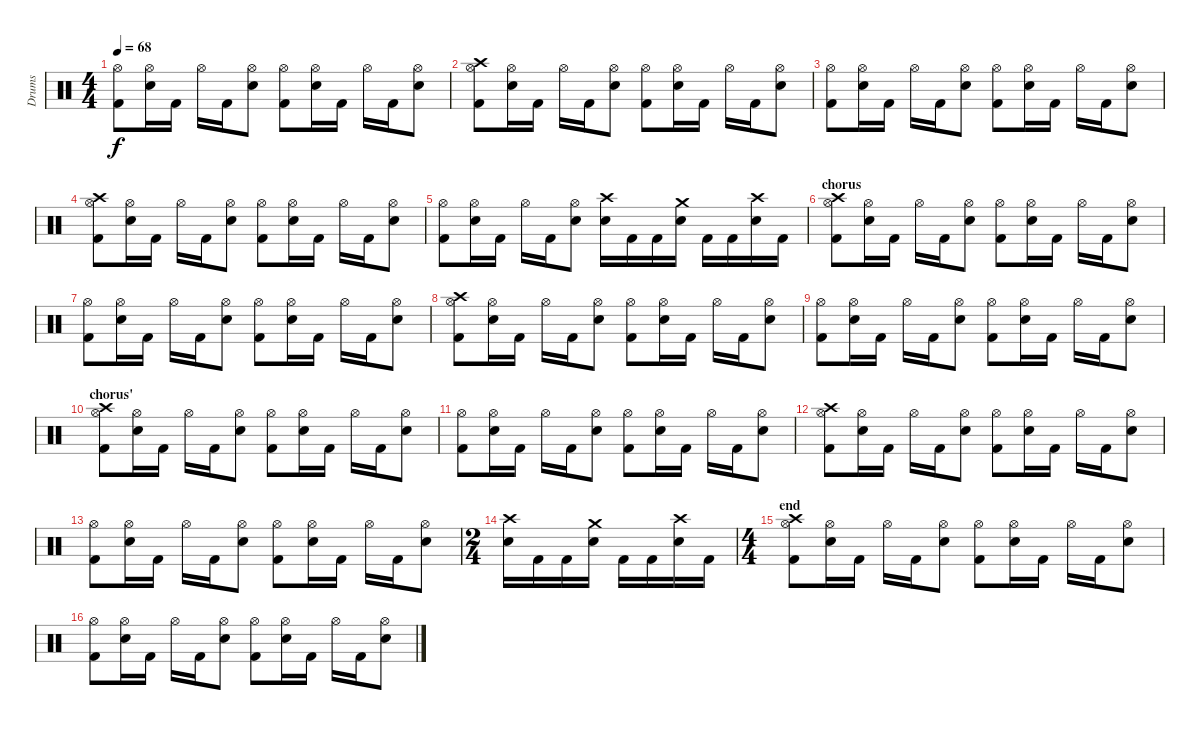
\track ("Drums" "Drums") {instrument percussion}
\staff {score}
\articulation defaults
\ts (4 4)
\tempo 68
\clef neutral
\ks c
("Hi-Hat (open)" "Kick (hit) 2").8{dy f} ("Hi-Hat (open)" "Snare (hit) 2").16 "Kick (hit) 2".16 "Hi-Hat (open)".16 "Kick (hit) 2".16 ("Hi-Hat (open)" "Snare (hit) 2").8 ("Hi-Hat (open)" "Kick (hit) 2").8 ("Hi-Hat (open)" "Snare (hit) 2").16 "Kick (hit) 2".16 "Hi-Hat (open)".16 "Kick (hit) 2".16 ("Hi-Hat (open)" "Snare (hit) 2").8 |
("Crash high (hit)" "Hi-Hat (open)" "Kick (hit) 2").8 ("Hi-Hat (open)" "Snare (hit) 2").16 "Kick (hit) 2".16 "Hi-Hat (open)".16 "Kick (hit) 2".16 ("Hi-Hat (open)" "Snare (hit) 2").8 ("Hi-Hat (open)" "Kick (hit) 2").8 ("Hi-Hat (open)" "Snare (hit) 2").16 "Kick (hit) 2".16 "Hi-Hat (open)".16 "Kick (hit) 2".16 ("Hi-Hat (open)" "Snare (hit) 2").8 |
("Hi-Hat (open)" "Kick (hit) 2").8 ("Hi-Hat (open)" "Snare (hit) 2").16 "Kick (hit) 2".16 "Hi-Hat (open)".16 "Kick (hit) 2".16 ("Hi-Hat (open)" "Snare (hit) 2").8 ("Hi-Hat (open)" "Kick (hit) 2").8 ("Hi-Hat (open)" "Snare (hit) 2").16 "Kick (hit) 2".16 "Hi-Hat (open)".16 "Kick (hit) 2".16 ("Hi-Hat (open)" "Snare (hit) 2").8 |
("Crash high (hit)" "Hi-Hat (open)" "Kick (hit) 2").8 ("Hi-Hat (open)" "Snare (hit) 2").16 "Kick (hit) 2".16 "Hi-Hat (open)".16 "Kick (hit) 2".16 ("Hi-Hat (open)" "Snare (hit) 2").8 ("Hi-Hat (open)" "Kick (hit) 2").8 ("Hi-Hat (open)" "Snare (hit) 2").16 "Kick (hit) 2".16 "Hi-Hat (open)".16 "Kick (hit) 2".16 ("Hi-Hat (open)" "Snare (hit) 2").8 |
("Hi-Hat (open)" "Kick (hit) 2").8 ("Hi-Hat (open)" "Snare (hit) 2").16 "Kick (hit) 2".16 "Hi-Hat (open)".16 "Kick (hit) 2".16 ("Hi-Hat (open)" "Snare (hit) 2").8 ("Crash high (hit)" "Snare (hit) 2").16 "Kick (hit) 2".16 "Kick (hit) 2".16 ("Crash medium (hit)" "Snare (hit) 2").16 "Kick (hit) 2".16 "Kick (hit) 2".16 ("Crash high (hit)" "Snare (hit) 2").16 "Kick (hit) 2".16 |
\section ("" "chorus")
("Crash high (hit)" "Hi-Hat (open)" "Kick (hit) 2").8 ("Hi-Hat (open)" "Snare (hit) 2").16 "Kick (hit) 2".16 "Hi-Hat (open)".16 "Kick (hit) 2".16 ("Hi-Hat (open)" "Snare (hit) 2").8 ("Hi-Hat (open)" "Kick (hit) 2").8 ("Hi-Hat (open)" "Snare (hit) 2").16 "Kick (hit) 2".16 "Hi-Hat (open)".16 "Kick (hit) 2".16 ("Hi-Hat (open)" "Snare (hit) 2").8 |
("Hi-Hat (open)" "Kick (hit) 2").8 ("Hi-Hat (open)" "Snare (hit) 2").16 "Kick (hit) 2".16 "Hi-Hat (open)".16 "Kick (hit) 2".16 ("Hi-Hat (open)" "Snare (hit) 2").8 ("Hi-Hat (open)" "Kick (hit) 2").8 ("Hi-Hat (open)" "Snare (hit) 2").16 "Kick (hit) 2".16 "Hi-Hat (open)".16 "Kick (hit) 2".16 ("Hi-Hat (open)" "Snare (hit) 2").8 |
("Crash high (hit)" "Hi-Hat (open)" "Kick (hit) 2").8 ("Hi-Hat (open)" "Snare (hit) 2").16 "Kick (hit) 2".16 "Hi-Hat (open)".16 "Kick (hit) 2".16 ("Hi-Hat (open)" "Snare (hit) 2").8 ("Hi-Hat (open)" "Kick (hit) 2").8 ("Hi-Hat (open)" "Snare (hit) 2").16 "Kick (hit) 2".16 "Hi-Hat (open)".16 "Kick (hit) 2".16 ("Hi-Hat (open)" "Snare (hit) 2").8 |
("Hi-Hat (open)" "Kick (hit) 2").8 ("Hi-Hat (open)" "Snare (hit) 2").16 "Kick (hit) 2".16 "Hi-Hat (open)".16 "Kick (hit) 2".16 ("Hi-Hat (open)" "Snare (hit) 2").8 ("Hi-Hat (open)" "Kick (hit) 2").8 ("Hi-Hat (open)" "Snare (hit) 2").16 "Kick (hit) 2".16 "Hi-Hat (open)".16 "Kick (hit) 2".16 ("Hi-Hat (open)" "Snare (hit) 2").8 |
\section ("" "chorus'")
("Crash high (hit)" "Hi-Hat (open)" "Kick (hit) 2").8 ("Hi-Hat (open)" "Snare (hit) 2").16 "Kick (hit) 2".16 "Hi-Hat (open)".16 "Kick (hit) 2".16 ("Hi-Hat (open)" "Snare (hit) 2").8 ("Hi-Hat (open)" "Kick (hit) 2").8 ("Hi-Hat (open)" "Snare (hit) 2").16 "Kick (hit) 2".16 "Hi-Hat (open)".16 "Kick (hit) 2".16 ("Hi-Hat (open)" "Snare (hit) 2").8 |
("Hi-Hat (open)" "Kick (hit) 2").8 ("Hi-Hat (open)" "Snare (hit) 2").16 "Kick (hit) 2".16 "Hi-Hat (open)".16 "Kick (hit) 2".16 ("Hi-Hat (open)" "Snare (hit) 2").8 ("Hi-Hat (open)" "Kick (hit) 2").8 ("Hi-Hat (open)" "Snare (hit) 2").16 "Kick (hit) 2".16 "Hi-Hat (open)".16 "Kick (hit) 2".16 ("Hi-Hat (open)" "Snare (hit) 2").8 |
("Crash high (hit)" "Hi-Hat (open)" "Kick (hit) 2").8 ("Hi-Hat (open)" "Snare (hit) 2").16 "Kick (hit) 2".16 "Hi-Hat (open)".16 "Kick (hit) 2".16 ("Hi-Hat (open)" "Snare (hit) 2").8 ("Hi-Hat (open)" "Kick (hit) 2").8 ("Hi-Hat (open)" "Snare (hit) 2").16 "Kick (hit) 2".16 "Hi-Hat (open)".16 "Kick (hit) 2".16 ("Hi-Hat (open)" "Snare (hit) 2").8 |
("Hi-Hat (open)" "Kick (hit) 2").8 ("Hi-Hat (open)" "Snare (hit) 2").16 "Kick (hit) 2".16 "Hi-Hat (open)".16 "Kick (hit) 2".16 ("Hi-Hat (open)" "Snare (hit) 2").8 ("Hi-Hat (open)" "Kick (hit) 2").8 ("Hi-Hat (open)" "Snare (hit) 2").16 "Kick (hit) 2".16 "Hi-Hat (open)".16 "Kick (hit) 2".16 ("Hi-Hat (open)" "Snare (hit) 2").8 |
\ts (2 4)
("Crash high (hit)" "Snare (hit) 2").16 "Kick (hit) 2".16 "Kick (hit) 2".16 ("Crash medium (hit)" "Snare (hit) 2").16 "Kick (hit) 2".16 "Kick (hit) 2".16 ("Crash high (hit)" "Snare (hit) 2").16 "Kick (hit) 2".16 |
\ts (4 4)
\section ("" "end")
("Crash high (hit)" "Hi-Hat (open)" "Kick (hit) 2").8 ("Hi-Hat (open)" "Snare (hit) 2").16 "Kick (hit) 2".16 "Hi-Hat (open)".16 "Kick (hit) 2".16 ("Hi-Hat (open)" "Snare (hit) 2").8 ("Hi-Hat (open)" "Kick (hit) 2").8 ("Hi-Hat (open)" "Snare (hit) 2").16 "Kick (hit) 2".16 "Hi-Hat (open)".16 "Kick (hit) 2".16 ("Hi-Hat (open)" "Snare (hit) 2").8 |
("Hi-Hat (open)" "Kick (hit) 2").8 ("Hi-Hat (open)" "Snare (hit) 2").16 "Kick (hit) 2".16 "Hi-Hat (open)".16 "Kick (hit) 2".16 ("Hi-Hat (open)" "Snare (hit) 2").8 ("Hi-Hat (open)" "Kick (hit) 2").8 ("Hi-Hat (open)" "Snare (hit) 2").16 "Kick (hit) 2".16 "Hi-Hat (open)".16 "Kick (hit) 2".16 ("Hi-Hat (open)" "Snare (hit) 2").8
